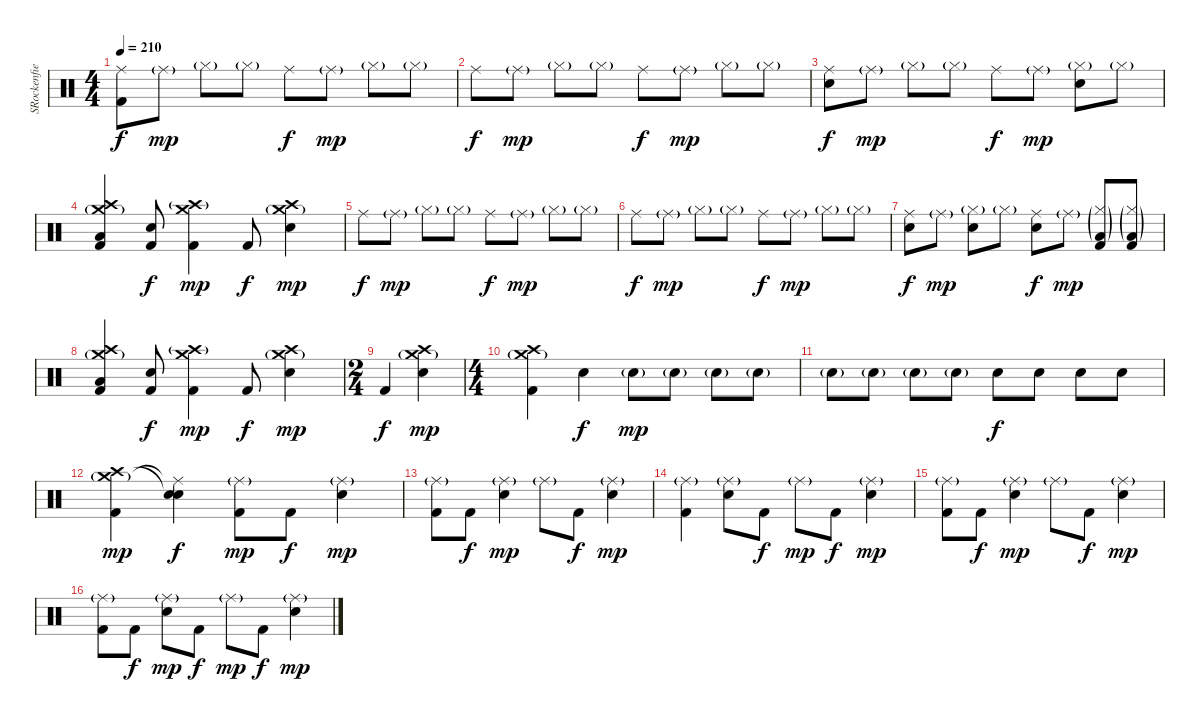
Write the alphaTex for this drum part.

\track ("SRockenfield" "SRockenfie") {instrument percussion}
\staff {score}
\articulation defaults
\ts (4 4)
\tempo 210
\clef neutral
\ks c
("Ride (middle)" "Kick (hit) 2").8{dy f} "Ride (middle)"{g}.8{dy mp} "Hi-Hat (closed)"{g}.8 "Hi-Hat (closed)"{g}.8 "Ride (middle)".8{dy f} "Ride (middle)"{g}.8{dy mp} "Hi-Hat (closed)"{g}.8 "Hi-Hat (closed)"{g}.8 |
"Ride (middle)".8{dy f} "Ride (middle)"{g}.8{dy mp} "Hi-Hat (closed)"{g}.8 "Hi-Hat (closed)"{g}.8 "Ride (middle)".8{dy f} "Ride (middle)"{g}.8{dy mp} "Hi-Hat (closed)"{g}.8 "Hi-Hat (closed)"{g}.8 |
("Ride (middle)" "Electric Snare (hit)").8{dy f} "Ride (middle)"{g}.8{dy mp} "Hi-Hat (closed)"{g}.8 "Hi-Hat (closed)"{g}.8 "Ride (middle)".8{dy f} "Ride (middle)"{g}.8{dy mp} ("Hi-Hat (closed)"{g} "Electric Snare (hit)").8 "Hi-Hat (closed)"{g}.8 |
("Crash high (hit)" "Crash medium (hit)"{g} "Low Floor Tom (hit)" "Kick (hit) 2").4 ("Electric Snare (hit)" "Kick (hit) 2").8{dy f} ("Crash medium (hit)" "Crash high (hit)"{g} "Kick (hit) 2").4{dy mp} "Kick (hit) 2".8{dy f} ("Crash high (hit)" "Crash medium (hit)"{g} "Electric Snare (hit)").4{dy mp} |
"Ride (middle)".8{dy f} "Ride (middle)"{g}.8{dy mp} "Hi-Hat (closed)"{g}.8 "Hi-Hat (closed)"{g}.8 "Ride (middle)".8{dy f} "Ride (middle)"{g}.8{dy mp} "Hi-Hat (closed)"{g}.8 "Hi-Hat (closed)"{g}.8 |
"Ride (middle)".8{dy f} "Ride (middle)"{g}.8{dy mp} "Hi-Hat (closed)"{g}.8 "Hi-Hat (closed)"{g}.8 "Ride (middle)".8{dy f} "Ride (middle)"{g}.8{dy mp} "Hi-Hat (closed)"{g}.8 "Hi-Hat (closed)"{g}.8 |
("Ride (middle)" "Electric Snare (hit)").8{dy f} "Ride (middle)"{g}.8{dy mp} ("Hi-Hat (closed)"{g} "Electric Snare (hit)").8 "Hi-Hat (closed)"{g}.8 ("Ride (middle)" "Electric Snare (hit)").8{dy f} "Ride (middle)"{g}.8{dy mp} ("Hi-Hat (closed)"{g} "Low Floor Tom (hit)"{g} "Kick (hit) 2").8 ("Hi-Hat (closed)"{g} "Low Floor Tom (hit)"{g} "Kick (hit) 2").8 |
("Crash high (hit)" "Crash medium (hit)"{g} "Low Floor Tom (hit)" "Kick (hit) 2").4 ("Electric Snare (hit)" "Kick (hit) 2").8{dy f} ("Crash medium (hit)" "Crash high (hit)"{g} "Kick (hit) 2").4{dy mp} "Kick (hit) 2".8{dy f} ("Crash high (hit)" "Crash medium (hit)"{g} "Electric Snare (hit)").4{dy mp} |
\ts (2 4)
"Kick (hit) 2".4{dy f} ("Crash high (hit)" "Crash medium (hit)"{g} "Electric Snare (hit)").4{dy mp} |
\ts (4 4)
("Crash high (hit)" "Crash medium (hit)"{g} "Kick (hit) 2").4 "Electric Snare (hit)".4{dy f} "Electric Snare (hit)"{g}.8{dy mp} "Electric Snare (hit)"{g}.8 "Electric Snare (hit)"{g}.8 "Electric Snare (hit)"{g}.8 |
"Electric Snare (hit)"{g}.8 "Electric Snare (hit)"{g}.8 "Electric Snare (hit)"{g}.8 "Electric Snare (hit)"{g}.8 "Electric Snare (hit)".8{dy f} "Electric Snare (hit)".8 "Electric Snare (hit)".8 "Electric Snare (hit)".8 |
("Crash medium (hit)"{g} "Crash high (hit)" "Kick (hit) 2").4{dy mp} ("Ride (middle)"{t} "Snare (hit)"{t} "Electric Snare (hit)").4{dy f} ("Ride (middle)"{g} "Kick (hit) 2").8{dy mp} "Kick (hit) 2".8{dy f} ("Ride (middle)"{g} "Electric Snare (hit)").4{dy mp} |
("Ride (middle)"{g} "Kick (hit) 2").8 "Kick (hit) 2".8{dy f} ("Ride (middle)"{g} "Electric Snare (hit)").4{dy mp} "Ride (middle)"{g}.8 "Kick (hit) 2".8{dy f} ("Ride (middle)"{g} "Electric Snare (hit)").4{dy mp} |
("Ride (middle)"{g} "Kick (hit) 2").4 ("Ride (middle)"{g} "Electric Snare (hit)").8 "Kick (hit) 2".8{dy f} "Ride (middle)"{g}.8{dy mp} "Kick (hit) 2".8{dy f} ("Ride (middle)"{g} "Electric Snare (hit)").4{dy mp} |
("Ride (middle)"{g} "Kick (hit) 2").8 "Kick (hit) 2".8{dy f} ("Ride (middle)"{g} "Electric Snare (hit)").4{dy mp} "Ride (middle)"{g}.8 "Kick (hit) 2".8{dy f} ("Ride (middle)"{g} "Electric Snare (hit)").4{dy mp} |
("Ride (middle)"{g} "Kick (hit) 2").8 "Kick (hit) 2".8{dy f} ("Ride (middle)"{g} "Electric Snare (hit)").8{dy mp} "Kick (hit) 2".8{dy f} "Ride (middle)"{g}.8{dy mp} "Kick (hit) 2".8{dy f} ("Ride (middle)"{g} "Electric Snare (hit)").4{dy mp}
